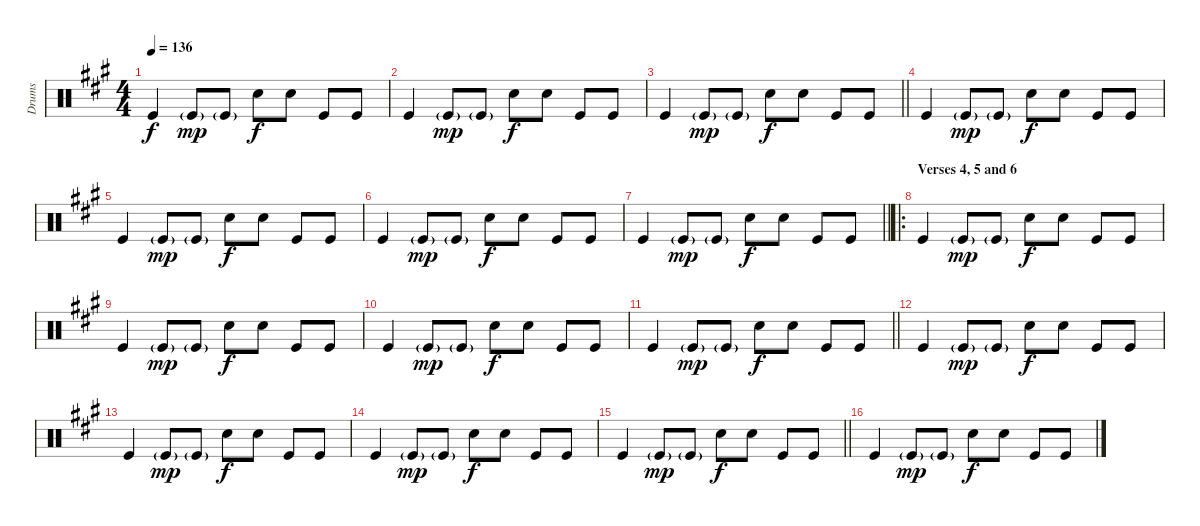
\track ("Drums" "Drums") {instrument percussion}
\staff {score}
\articulation defaults
\ts (4 4)
\tempo 136
\clef neutral
\ks a "Kick (hit)".4{dy f} "Kick (hit)"{g}.8{dy mp} "Kick (hit)"{g}.8 "Electric Snare (hit)".8{dy f} "Electric Snare (hit)".8 "Kick (hit)".8 "Kick (hit)".8
|
"Kick (hit)".4 "Kick (hit)"{g}.8{dy mp} "Kick (hit)"{g}.8 "Electric Snare (hit)".8{dy f} "Electric Snare (hit)".8 "Kick (hit)".8 "Kick (hit)".8 |
\barLineRight lightlight "Kick (hit)".4 "Kick (hit)"{g}.8{dy mp} "Kick (hit)"{g}.8 "Electric Snare (hit)".8{dy f} "Electric Snare (hit)".8 "Kick (hit)".8 "Kick (hit)".8
|
"Kick (hit)".4 "Kick (hit)"{g}.8{dy mp} "Kick (hit)"{g}.8 "Electric Snare (hit)".8{dy f} "Electric Snare (hit)".8 "Kick (hit)".8 "Kick (hit)".8 |
"Kick (hit)".4 "Kick (hit)"{g}.8{dy mp} "Kick (hit)"{g}.8 "Electric Snare (hit)".8{dy f} "Electric Snare (hit)".8 "Kick (hit)".8 "Kick (hit)".8 |
"Kick (hit)".4 "Kick (hit)"{g}.8{dy mp} "Kick (hit)"{g}.8 "Electric Snare (hit)".8{dy f} "Electric Snare (hit)".8 "Kick (hit)".8 "Kick (hit)".8 |
\barLineRight lightlight "Kick (hit)".4 "Kick (hit)"{g}.8{dy mp} "Kick (hit)"{g}.8 "Electric Snare (hit)".8{dy f} "Electric Snare (hit)".8 "Kick (hit)".8 "Kick (hit)".8
|
\ro
\section ("" "Verses 4, 5 and 6")
"Kick (hit)".4 "Kick (hit)"{g}.8{dy mp} "Kick (hit)"{g}.8 "Electric Snare (hit)".8{dy f} "Electric Snare (hit)".8 "Kick (hit)".8 "Kick (hit)".8 |
"Kick (hit)".4 "Kick (hit)"{g}.8{dy mp} "Kick (hit)"{g}.8 "Electric Snare (hit)".8{dy f} "Electric Snare (hit)".8 "Kick (hit)".8 "Kick (hit)".8 |
"Kick (hit)".4 "Kick (hit)"{g}.8{dy mp} "Kick (hit)"{g}.8 "Electric Snare (hit)".8{dy f} "Electric Snare (hit)".8 "Kick (hit)".8 "Kick (hit)".8 |
\barLineRight lightlight "Kick (hit)".4 "Kick (hit)"{g}.8{dy mp} "Kick (hit)"{g}.8 "Electric Snare (hit)".8{dy f} "Electric Snare (hit)".8 "Kick (hit)".8 "Kick (hit)".8
|
"Kick (hit)".4 "Kick (hit)"{g}.8{dy mp} "Kick (hit)"{g}.8 "Electric Snare (hit)".8{dy f} "Electric Snare (hit)".8 "Kick (hit)".8 "Kick (hit)".8 |
"Kick (hit)".4 "Kick (hit)"{g}.8{dy mp} "Kick (hit)"{g}.8 "Electric Snare (hit)".8{dy f} "Electric Snare (hit)".8 "Kick (hit)".8 "Kick (hit)".8 |
"Kick (hit)".4 "Kick (hit)"{g}.8{dy mp} "Kick (hit)"{g}.8 "Electric Snare (hit)".8{dy f} "Electric Snare (hit)".8 "Kick (hit)".8 "Kick (hit)".8 |
\barLineRight lightlight "Kick (hit)".4 "Kick (hit)"{g}.8{dy mp} "Kick (hit)"{g}.8 "Electric Snare (hit)".8{dy f} "Electric Snare (hit)".8 "Kick (hit)".8 "Kick (hit)".8
|
"Kick (hit)".4 "Kick (hit)"{g}.8{dy mp} "Kick (hit)"{g}.8 "Electric Snare (hit)".8{dy f} "Electric Snare (hit)".8 "Kick (hit)".8 "Kick (hit)".8
